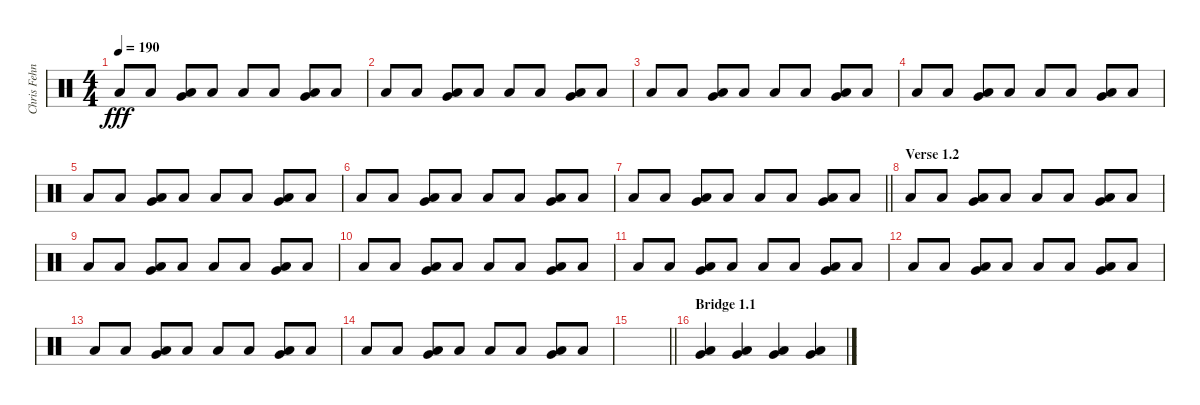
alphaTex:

\track ("Chris Fehn" "Chris Fehn") {instrument percussion}
\staff {score}
\articulation defaults
\ts (4 4)
\tempo 190
\clef neutral
\ks c "Low Floor Tom (hit)".8{dy fff} "Low Floor Tom (hit)".8
("Very Low Tom (hit)" "Low Floor Tom (hit)").8 "Low Floor Tom (hit)".8 "Low Floor Tom (hit)".8 "Low Floor Tom (hit)".8 ("Very Low Tom (hit)" "Low Floor Tom (hit)").8 "Low Floor Tom (hit)".8 |
"Low Floor Tom (hit)".8 "Low Floor Tom (hit)".8 ("Very Low Tom (hit)" "Low Floor Tom (hit)").8 "Low Floor Tom (hit)".8 "Low Floor Tom (hit)".8 "Low Floor Tom (hit)".8 ("Very Low Tom (hit)" "Low Floor Tom (hit)").8 "Low Floor Tom (hit)".8 |
"Low Floor Tom (hit)".8 "Low Floor Tom (hit)".8 ("Very Low Tom (hit)" "Low Floor Tom (hit)").8 "Low Floor Tom (hit)".8 "Low Floor Tom (hit)".8 "Low Floor Tom (hit)".8 ("Very Low Tom (hit)" "Low Floor Tom (hit)").8 "Low Floor Tom (hit)".8 |
"Low Floor Tom (hit)".8 "Low Floor Tom (hit)".8 ("Very Low Tom (hit)" "Low Floor Tom (hit)").8 "Low Floor Tom (hit)".8 "Low Floor Tom (hit)".8 "Low Floor Tom (hit)".8 ("Very Low Tom (hit)" "Low Floor Tom (hit)").8 "Low Floor Tom (hit)".8 |
"Low Floor Tom (hit)".8 "Low Floor Tom (hit)".8 ("Very Low Tom (hit)" "Low Floor Tom (hit)").8 "Low Floor Tom (hit)".8 "Low Floor Tom (hit)".8 "Low Floor Tom (hit)".8 ("Very Low Tom (hit)" "Low Floor Tom (hit)").8 "Low Floor Tom (hit)".8 |
"Low Floor Tom (hit)".8 "Low Floor Tom (hit)".8 ("Very Low Tom (hit)" "Low Floor Tom (hit)").8 "Low Floor Tom (hit)".8 "Low Floor Tom (hit)".8 "Low Floor Tom (hit)".8 ("Very Low Tom (hit)" "Low Floor Tom (hit)").8 "Low Floor Tom (hit)".8 |
\barLineRight lightlight "Low Floor Tom (hit)".8 "Low Floor Tom (hit)".8
("Very Low Tom (hit)" "Low Floor Tom (hit)").8 "Low Floor Tom (hit)".8 "Low Floor Tom (hit)".8 "Low Floor Tom (hit)".8 ("Very Low Tom (hit)" "Low Floor Tom (hit)").8 "Low Floor Tom (hit)".8 |
\section ("" "Verse 1.2")
"Low Floor Tom (hit)".8 "Low Floor Tom (hit)".8 ("Very Low Tom (hit)" "Low Floor Tom (hit)").8 "Low Floor Tom (hit)".8 "Low Floor Tom (hit)".8 "Low Floor Tom (hit)".8 ("Very Low Tom (hit)" "Low Floor Tom (hit)").8 "Low Floor Tom (hit)".8 |
"Low Floor Tom (hit)".8 "Low Floor Tom (hit)".8 ("Very Low Tom (hit)" "Low Floor Tom (hit)").8 "Low Floor Tom (hit)".8 "Low Floor Tom (hit)".8 "Low Floor Tom (hit)".8 ("Very Low Tom (hit)" "Low Floor Tom (hit)").8 "Low Floor Tom (hit)".8 |
"Low Floor Tom (hit)".8 "Low Floor Tom (hit)".8 ("Very Low Tom (hit)" "Low Floor Tom (hit)").8 "Low Floor Tom (hit)".8 "Low Floor Tom (hit)".8 "Low Floor Tom (hit)".8 ("Very Low Tom (hit)" "Low Floor Tom (hit)").8 "Low Floor Tom (hit)".8 |
"Low Floor Tom (hit)".8 "Low Floor Tom (hit)".8 ("Very Low Tom (hit)" "Low Floor Tom (hit)").8 "Low Floor Tom (hit)".8 "Low Floor Tom (hit)".8 "Low Floor Tom (hit)".8 ("Very Low Tom (hit)" "Low Floor Tom (hit)").8 "Low Floor Tom (hit)".8 |
"Low Floor Tom (hit)".8 "Low Floor Tom (hit)".8 ("Very Low Tom (hit)" "Low Floor Tom (hit)").8 "Low Floor Tom (hit)".8 "Low Floor Tom (hit)".8 "Low Floor Tom (hit)".8 ("Very Low Tom (hit)" "Low Floor Tom (hit)").8 "Low Floor Tom (hit)".8 |
"Low Floor Tom (hit)".8 "Low Floor Tom (hit)".8 ("Very Low Tom (hit)" "Low Floor Tom (hit)").8 "Low Floor Tom (hit)".8 "Low Floor Tom (hit)".8 "Low Floor Tom (hit)".8 ("Very Low Tom (hit)" "Low Floor Tom (hit)").8 "Low Floor Tom (hit)".8 |
"Low Floor Tom (hit)".8 "Low Floor Tom (hit)".8 ("Very Low Tom (hit)" "Low Floor Tom (hit)").8 "Low Floor Tom (hit)".8 "Low Floor Tom (hit)".8 "Low Floor Tom (hit)".8 ("Very Low Tom (hit)" "Low Floor Tom (hit)").8 "Low Floor Tom (hit)".8 |
\barLineRight lightlight
|
\section ("" "Bridge 1.1")
("Very Low Tom (hit)" "Low Floor Tom (hit)").4 ("Very Low Tom (hit)" "Low Floor Tom (hit)").4 ("Very Low Tom (hit)" "Low Floor Tom (hit)").4 ("Very Low Tom (hit)" "Low Floor Tom (hit)").4
